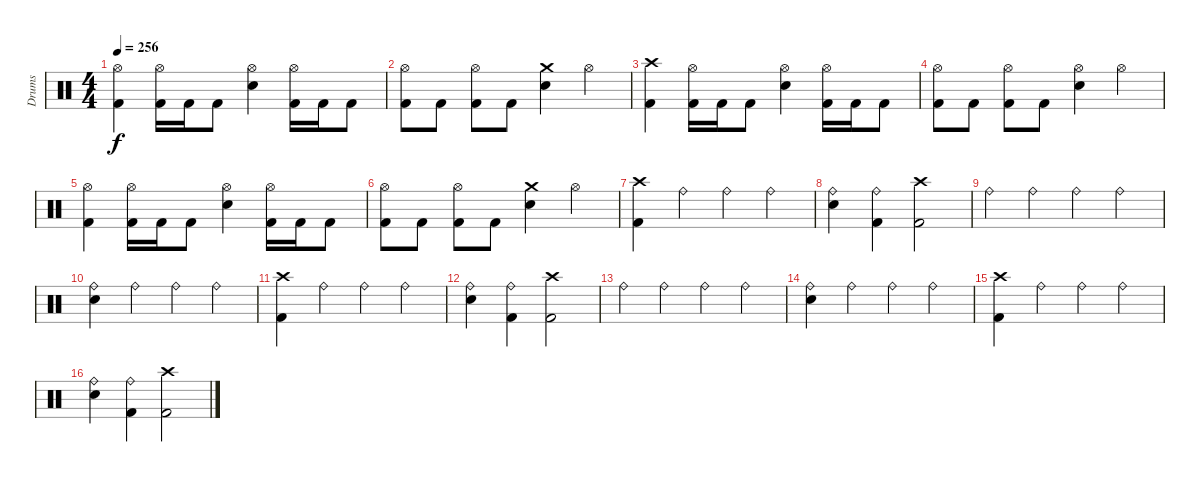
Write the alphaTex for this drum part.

\track ("Drums" "Drums") {instrument percussion}
\staff {score}
\articulation defaults
\ts (4 4)
\tempo 256
\clef neutral
\ks c
("Hi-Hat (open)" "Kick (hit) 2").4{dy f} ("Hi-Hat (open)" "Kick (hit) 2").16 "Kick (hit) 2".16 "Kick (hit) 2".8 ("Hi-Hat (open)" "Electric Snare (hit)").4 ("Hi-Hat (open)" "Kick (hit) 2").16 "Kick (hit) 2".16 "Kick (hit) 2".8 |
("Hi-Hat (open)" "Kick (hit) 2").8 "Kick (hit) 2".8 ("Hi-Hat (open)" "Kick (hit) 2").8 "Kick (hit) 2".8 ("Crash medium (hit)" "Electric Snare (hit)").4 "Hi-Hat (open)".4 |
("Crash high (hit)" "Kick (hit) 2").4 ("Hi-Hat (open)" "Kick (hit) 2").16 "Kick (hit) 2".16 "Kick (hit) 2".8 ("Hi-Hat (open)" "Electric Snare (hit)").4 ("Hi-Hat (open)" "Kick (hit) 2").16 "Kick (hit) 2".16 "Kick (hit) 2".8 |
("Hi-Hat (open)" "Kick (hit) 2").8 "Kick (hit) 2".8 ("Hi-Hat (open)" "Kick (hit) 2").8 "Kick (hit) 2".8 ("Hi-Hat (open)" "Electric Snare (hit)").4 "Hi-Hat (open)".4 |
("Hi-Hat (open)" "Kick (hit) 2").4 ("Hi-Hat (open)" "Kick (hit) 2").16 "Kick (hit) 2".16 "Kick (hit) 2".8 ("Hi-Hat (open)" "Electric Snare (hit)").4 ("Hi-Hat (open)" "Kick (hit) 2").16 "Kick (hit) 2".16 "Kick (hit) 2".8 |
("Hi-Hat (open)" "Kick (hit) 2").8 "Kick (hit) 2".8 ("Hi-Hat (open)" "Kick (hit) 2").8 "Kick (hit) 2".8 ("Crash medium (hit)" "Electric Snare (hit)").4 "Hi-Hat (open)".4 |
("Crash high (hit)" "Kick (hit) 2").4 "Ride (bell)".4 "Ride (bell)".4 "Ride (bell)".4 |
("Electric Snare (hit)" "Ride (bell)").4 ("Kick (hit) 2" "Ride (bell)").4 ("Crash high (hit)" "Kick (hit) 2").2 |
"Ride (bell)".4 "Ride (bell)".4 "Ride (bell)".4 "Ride (bell)".4 |
("Electric Snare (hit)" "Ride (bell)").4 "Ride (bell)".4 "Ride (bell)".4 "Ride (bell)".4 |
("Crash high (hit)" "Kick (hit) 2").4 "Ride (bell)".4 "Ride (bell)".4 "Ride (bell)".4 |
("Electric Snare (hit)" "Ride (bell)").4 ("Kick (hit) 2" "Ride (bell)").4 ("Crash high (hit)" "Kick (hit) 2").2 |
"Ride (bell)".4 "Ride (bell)".4 "Ride (bell)".4 "Ride (bell)".4 |
("Electric Snare (hit)" "Ride (bell)").4 "Ride (bell)".4 "Ride (bell)".4 "Ride (bell)".4 |
("Crash high (hit)" "Kick (hit) 2").4 "Ride (bell)".4 "Ride (bell)".4 "Ride (bell)".4 |
("Electric Snare (hit)" "Ride (bell)").4 ("Kick (hit) 2" "Ride (bell)").4 ("Crash high (hit)" "Kick (hit) 2").2
